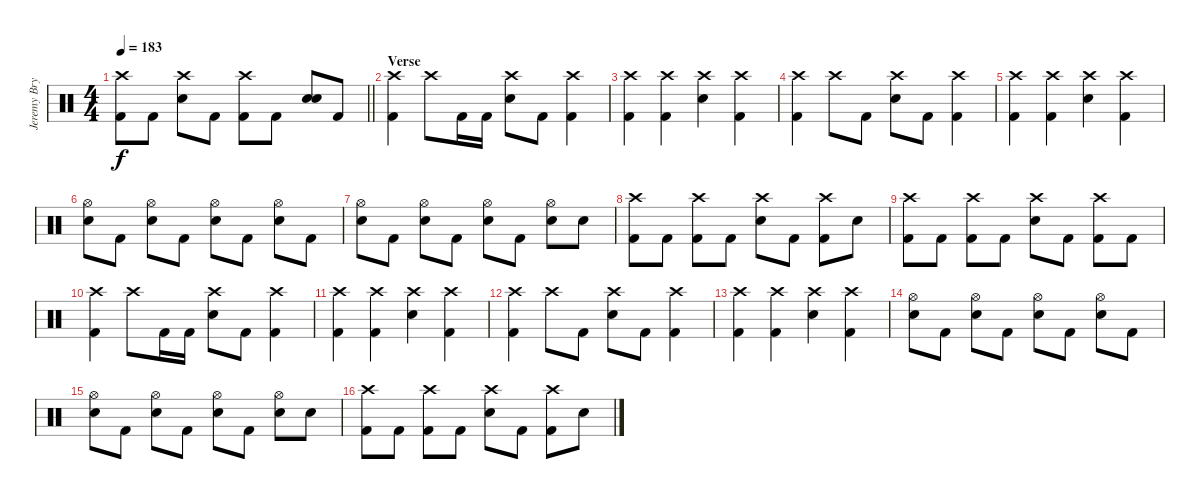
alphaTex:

\track ("Jeremy Bryan - Drums" "Jeremy Bry") {instrument percussion}
\staff {score}
\articulation defaults
\ts (4 4)
\tempo 183
\clef neutral
\barLineRight lightlight
\ks c
("Crash high (hit)" "Kick (hit) 2").8{dy f} "Kick (hit) 2".8 ("Crash high (hit)" "Electric Snare (hit)").8 "Kick (hit) 2".8 ("Crash high (hit)" "Kick (hit) 2").8 "Kick (hit) 2".8 ("Electric Snare (hit)" "Electric Snare (hit)").8 "Kick (hit) 2".8 |
\section ("" "Verse")
("Crash high (hit)" "Kick (hit) 2").4 "Crash high (hit)".8 "Kick (hit) 2".16 "Kick (hit) 2".16 ("Crash high (hit)" "Electric Snare (hit)").8 "Kick (hit) 2".8 ("Crash high (hit)" "Kick (hit) 2").4 |
("Crash high (hit)" "Kick (hit) 2").4 ("Crash high (hit)" "Kick (hit) 2").4 ("Crash high (hit)" "Electric Snare (hit)").4 ("Crash high (hit)" "Kick (hit) 2").4 |
("Crash high (hit)" "Kick (hit) 2").4 "Crash high (hit)".8 "Kick (hit) 2".8 ("Crash high (hit)" "Electric Snare (hit)").8 "Kick (hit) 2".8 ("Crash high (hit)" "Kick (hit) 2").4 |
("Crash high (hit)" "Kick (hit) 2").4 ("Crash high (hit)" "Kick (hit) 2").4 ("Crash high (hit)" "Electric Snare (hit)").4 ("Crash high (hit)" "Kick (hit) 2").4 |
("Hi-Hat (open)" "Electric Snare (hit)").8 "Kick (hit) 2".8 ("Hi-Hat (open)" "Electric Snare (hit)").8 "Kick (hit) 2".8 ("Hi-Hat (open)" "Electric Snare (hit)").8 "Kick (hit) 2".8 ("Hi-Hat (open)" "Electric Snare (hit)").8 "Kick (hit) 2".8 |
("Hi-Hat (open)" "Electric Snare (hit)").8 "Kick (hit) 2".8 ("Hi-Hat (open)" "Electric Snare (hit)").8 "Kick (hit) 2".8 ("Hi-Hat (open)" "Electric Snare (hit)").8 "Kick (hit) 2".8 ("Hi-Hat (open)" "Electric Snare (hit)").8 "Electric Snare (hit)".8 |
("Crash high (hit)" "Kick (hit) 2").8 "Kick (hit) 2".8 ("Crash high (hit)" "Kick (hit) 2").8 "Kick (hit) 2".8 ("Crash high (hit)" "Electric Snare (hit)").8 "Kick (hit) 2".8 ("Crash high (hit)" "Kick (hit) 2").8 "Electric Snare (hit)".8 |
("Crash high (hit)" "Kick (hit) 2").8 "Kick (hit) 2".8 ("Crash high (hit)" "Kick (hit) 2").8 "Kick (hit) 2".8 ("Crash high (hit)" "Electric Snare (hit)").8 "Kick (hit) 2".8 ("Crash high (hit)" "Kick (hit) 2").8 "Kick (hit) 2".8 |
("Crash high (hit)" "Kick (hit) 2").4 "Crash high (hit)".8 "Kick (hit) 2".16 "Kick (hit) 2".16 ("Crash high (hit)" "Electric Snare (hit)").8 "Kick (hit) 2".8 ("Crash high (hit)" "Kick (hit) 2").4 |
("Crash high (hit)" "Kick (hit) 2").4 ("Crash high (hit)" "Kick (hit) 2").4 ("Crash high (hit)" "Electric Snare (hit)").4 ("Crash high (hit)" "Kick (hit) 2").4 |
("Crash high (hit)" "Kick (hit) 2").4 "Crash high (hit)".8 "Kick (hit) 2".8 ("Crash high (hit)" "Electric Snare (hit)").8 "Kick (hit) 2".8 ("Crash high (hit)" "Kick (hit) 2").4 |
("Crash high (hit)" "Kick (hit) 2").4 ("Crash high (hit)" "Kick (hit) 2").4 ("Crash high (hit)" "Electric Snare (hit)").4 ("Crash high (hit)" "Kick (hit) 2").4 |
("Hi-Hat (open)" "Electric Snare (hit)").8 "Kick (hit) 2".8 ("Hi-Hat (open)" "Electric Snare (hit)").8 "Kick (hit) 2".8 ("Hi-Hat (open)" "Electric Snare (hit)").8 "Kick (hit) 2".8 ("Hi-Hat (open)" "Electric Snare (hit)").8 "Kick (hit) 2".8 |
("Hi-Hat (open)" "Electric Snare (hit)").8 "Kick (hit) 2".8 ("Hi-Hat (open)" "Electric Snare (hit)").8 "Kick (hit) 2".8 ("Hi-Hat (open)" "Electric Snare (hit)").8 "Kick (hit) 2".8 ("Hi-Hat (open)" "Electric Snare (hit)").8 "Electric Snare (hit)".8 |
("Crash high (hit)" "Kick (hit) 2").8 "Kick (hit) 2".8 ("Crash high (hit)" "Kick (hit) 2").8 "Kick (hit) 2".8 ("Crash high (hit)" "Electric Snare (hit)").8 "Kick (hit) 2".8 ("Crash high (hit)" "Kick (hit) 2").8 "Electric Snare (hit)".8
